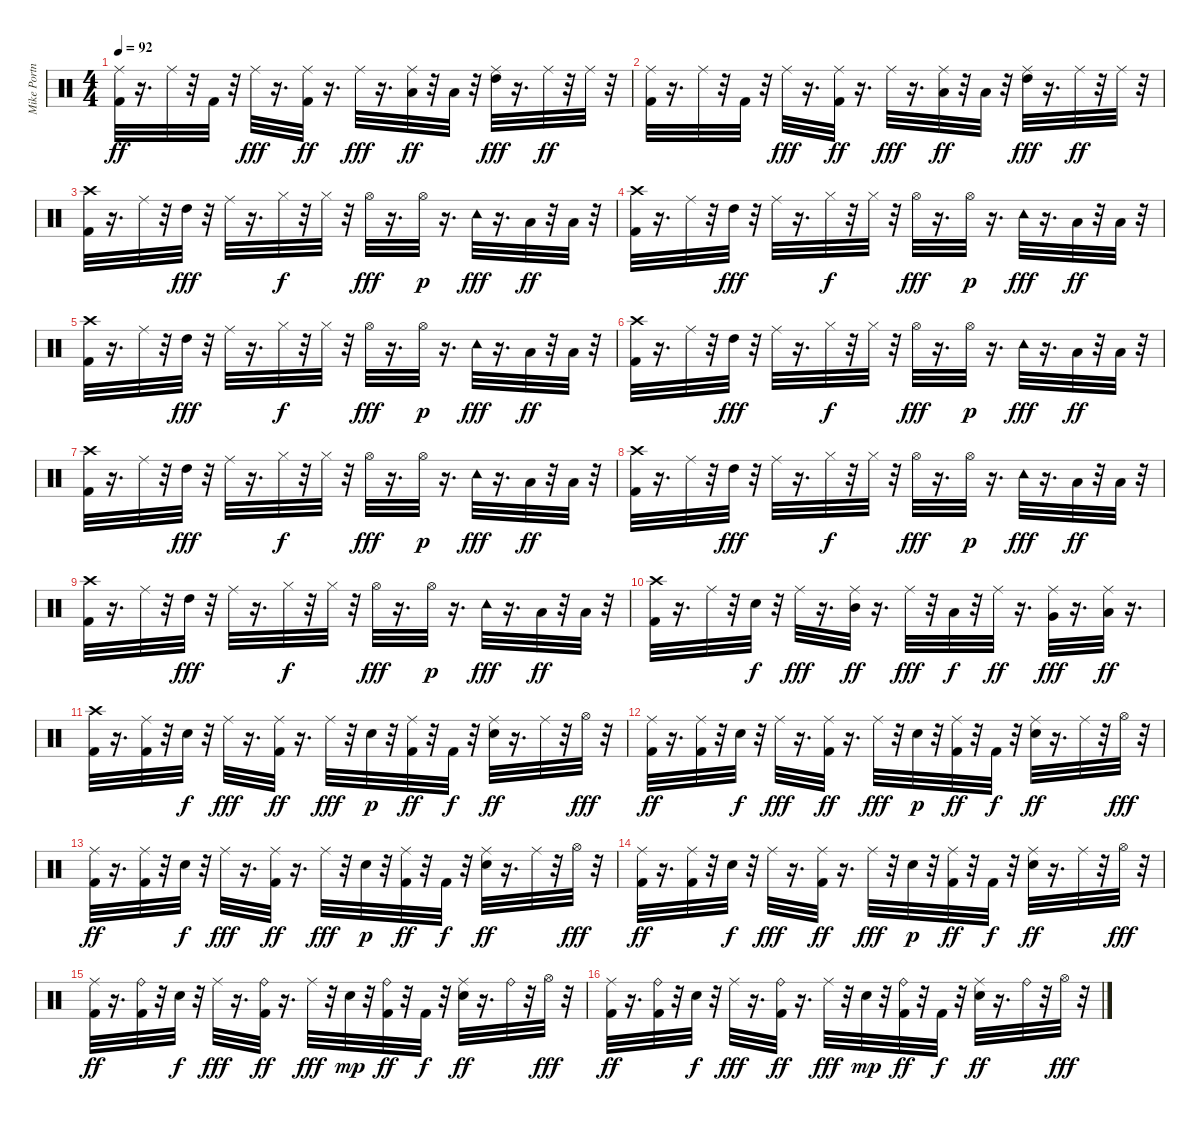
\track ("Mike Portnoy" "Mike Portn") {instrument percussion}
\staff {score}
\articulation defaults
\ts (4 4)
\tempo 92
\clef neutral
\ks c
("Ride (middle)" "Kick (hit) 2").32{dy ff} r.16{d} "Ride (middle)".32 r.32 "Kick (hit) 2".32 r.32 "Ride (middle)".32{dy fff} r.16{d} ("Ride (middle)" "Kick (hit) 2").32{dy ff} r.16{d} "Ride (middle)".32{dy fff} r.16{d} ("Ride (middle)" "Low Tom (hit)").32{dy ff} r.32 "Low Tom (hit)".32 r.32 ("Ride (middle)" "High Tom (hit)").32{dy fff} r.16{d} "Ride (middle)".32{dy ff} r.32 "Ride (middle)".32 r.32 |
("Ride (middle)" "Kick (hit) 2").32 r.16{d} "Ride (middle)".32 r.32 "Kick (hit) 2".32 r.32 "Ride (middle)".32{dy fff} r.16{d} ("Ride (middle)" "Kick (hit) 2").32{dy ff} r.16{d} "Ride (middle)".32{dy fff} r.16{d} ("Ride (middle)" "Low Tom (hit)").32{dy ff} r.32 "Low Tom (hit)".32 r.32 ("Ride (middle)" "High Tom (hit)").32{dy fff} r.16{d} "Ride (middle)".32{dy ff} r.32 "Ride (middle)".32 r.32 |
("Kick (hit) 2" "Crash high (hit)").32 r.16{d} "Ride (middle)".32 r.32 "High Tom (hit)".32{dy fff} r.32 "Ride (middle)".32 r.16{d} "Hi-Hat (closed)".32{dy f} r.32 "Hi-Hat (closed)".32 r.32 "Hi-Hat (open)".32{dy fff} r.16{d} "Hi-Hat (open)".32{dy p} r.16{d} "Tambourine (hit)".32{dy fff} r.16{d} "Low Tom (hit)".32{dy ff} r.32 "Low Tom (hit)".32 r.32 |
("Kick (hit) 2" "Crash high (hit)").32 r.16{d} "Ride (middle)".32 r.32 "High Tom (hit)".32{dy fff} r.32 "Ride (middle)".32 r.16{d} "Hi-Hat (closed)".32{dy f} r.32 "Hi-Hat (closed)".32 r.32 "Hi-Hat (open)".32{dy fff} r.16{d} "Hi-Hat (open)".32{dy p} r.16{d} "Tambourine (hit)".32{dy fff} r.16{d} "Low Tom (hit)".32{dy ff} r.32 "Low Tom (hit)".32 r.32 |
("Kick (hit) 2" "Crash high (hit)").32 r.16{d} "Ride (middle)".32 r.32 "High Tom (hit)".32{dy fff} r.32 "Ride (middle)".32 r.16{d} "Hi-Hat (closed)".32{dy f} r.32 "Hi-Hat (closed)".32 r.32 "Hi-Hat (open)".32{dy fff} r.16{d} "Hi-Hat (open)".32{dy p} r.16{d} "Tambourine (hit)".32{dy fff} r.16{d} "Low Tom (hit)".32{dy ff} r.32 "Low Tom (hit)".32 r.32 |
("Kick (hit) 2" "Crash high (hit)").32 r.16{d} "Ride (middle)".32 r.32 "High Tom (hit)".32{dy fff} r.32 "Ride (middle)".32 r.16{d} "Hi-Hat (closed)".32{dy f} r.32 "Hi-Hat (closed)".32 r.32 "Hi-Hat (open)".32{dy fff} r.16{d} "Hi-Hat (open)".32{dy p} r.16{d} "Tambourine (hit)".32{dy fff} r.16{d} "Low Tom (hit)".32{dy ff} r.32 "Low Tom (hit)".32 r.32 |
("Kick (hit) 2" "Crash high (hit)").32 r.16{d} "Ride (middle)".32 r.32 "High Tom (hit)".32{dy fff} r.32 "Ride (middle)".32 r.16{d} "Hi-Hat (closed)".32{dy f} r.32 "Hi-Hat (closed)".32 r.32 "Hi-Hat (open)".32{dy fff} r.16{d} "Hi-Hat (open)".32{dy p} r.16{d} "Tambourine (hit)".32{dy fff} r.16{d} "Low Tom (hit)".32{dy ff} r.32 "Low Tom (hit)".32 r.32 |
("Kick (hit) 2" "Crash high (hit)").32 r.16{d} "Ride (middle)".32 r.32 "High Tom (hit)".32{dy fff} r.32 "Ride (middle)".32 r.16{d} "Hi-Hat (closed)".32{dy f} r.32 "Hi-Hat (closed)".32 r.32 "Hi-Hat (open)".32{dy fff} r.16{d} "Hi-Hat (open)".32{dy p} r.16{d} "Tambourine (hit)".32{dy fff} r.16{d} "Low Tom (hit)".32{dy ff} r.32 "Low Tom (hit)".32 r.32 |
("Kick (hit) 2" "Crash high (hit)").32 r.16{d} "Ride (middle)".32 r.32 "High Tom (hit)".32{dy fff} r.32 "Ride (middle)".32 r.16{d} "Hi-Hat (closed)".32{dy f} r.32 "Hi-Hat (closed)".32 r.32 "Hi-Hat (open)".32{dy fff} r.16{d} "Hi-Hat (open)".32{dy p} r.16{d} "Tambourine (hit)".32{dy fff} r.16{d} "Low Tom (hit)".32{dy ff} r.32 "Low Tom (hit)".32 r.32 |
("Kick (hit) 2" "Crash high (hit)").32 r.16{d} "Ride (middle)".32 r.32 "Snare (hit) 2".32{dy f} r.32 "Ride (middle)".32{dy fff} r.16{d} ("Ride (middle)" "Mid Tom (hit)").32{dy ff} r.16{d} "Ride (middle)".32{dy fff} r.32 "Low Tom (hit)".32{dy f} r.32 "Ride (middle)".32{dy ff} r.16{d} ("Ride (middle)" "Very Low Tom (hit)").32{dy fff} r.16{d} ("Ride (middle)" "Low Floor Tom (hit)").32{dy ff} r.16{d} |
("Kick (hit) 2" "Crash high (hit)").32 r.16{d} ("Ride (middle)" "Kick (hit) 2").32 r.32 "Snare (hit) 2".32{dy f} r.32 "Ride (middle)".32{dy fff} r.16{d} ("Ride (middle)" "Kick (hit) 2").32{dy ff} r.16{d} "Ride (middle)".32{dy fff} r.32 "Snare (hit) 2".32{dy p} r.32 ("Ride (middle)" "Kick (hit) 2").32{dy ff} r.32 "Kick (hit) 2".32{dy f} r.32 ("Ride (middle)" "Snare (hit) 2").32{dy ff} r.16{d} "Ride (middle)".32 r.32 "Hi-Hat (open)".32{dy fff} r.32 |
("Ride (middle)" "Kick (hit) 2").32{dy ff} r.16{d} ("Ride (middle)" "Kick (hit) 2").32 r.32 "Snare (hit) 2".32{dy f} r.32 "Ride (middle)".32{dy fff} r.16{d} ("Ride (middle)" "Kick (hit) 2").32{dy ff} r.16{d} "Ride (middle)".32{dy fff} r.32 "Snare (hit) 2".32{dy p} r.32 ("Ride (middle)" "Kick (hit) 2").32{dy ff} r.32 "Kick (hit) 2".32{dy f} r.32 ("Ride (middle)" "Snare (hit) 2").32{dy ff} r.16{d} "Ride (middle)".32 r.32 "Hi-Hat (open)".32{dy fff} r.32 |
("Ride (middle)" "Kick (hit) 2").32{dy ff} r.16{d} ("Ride (middle)" "Kick (hit) 2").32 r.32 "Snare (hit) 2".32{dy f} r.32 "Ride (middle)".32{dy fff} r.16{d} ("Ride (middle)" "Kick (hit) 2").32{dy ff} r.16{d} "Ride (middle)".32{dy fff} r.32 "Snare (hit) 2".32{dy p} r.32 ("Ride (middle)" "Kick (hit) 2").32{dy ff} r.32 "Kick (hit) 2".32{dy f} r.32 ("Ride (middle)" "Snare (hit) 2").32{dy ff} r.16{d} "Ride (middle)".32 r.32 "Hi-Hat (open)".32{dy fff} r.32 |
("Ride (middle)" "Kick (hit) 2").32{dy ff} r.16{d} ("Ride (middle)" "Kick (hit) 2").32 r.32 "Snare (hit) 2".32{dy f} r.32 "Ride (middle)".32{dy fff} r.16{d} ("Ride (middle)" "Kick (hit) 2").32{dy ff} r.16{d} "Ride (middle)".32{dy fff} r.32 "Snare (hit) 2".32{dy p} r.32 ("Ride (middle)" "Kick (hit) 2").32{dy ff} r.32 "Kick (hit) 2".32{dy f} r.32 ("Ride (middle)" "Snare (hit) 2").32{dy ff} r.16{d} "Ride (middle)".32 r.32 "Hi-Hat (open)".32{dy fff} r.32 |
("Ride (middle)" "Kick (hit) 2").32{dy ff} r.16{d} ("Kick (hit) 2" "Ride (bell)").32 r.32 "Snare (hit) 2".32{dy f} r.32 "Ride (middle)".32{dy fff} r.16{d} ("Kick (hit) 2" "Ride (bell)").32{dy ff} r.16{d} "Ride (middle)".32{dy fff} r.32 "Snare (hit) 2".32{dy mp} r.32 ("Kick (hit) 2" "Ride (bell)").32{dy ff} r.32 "Kick (hit) 2".32{dy f} r.32 ("Ride (middle)" "Snare (hit) 2").32{dy ff} r.16{d} "Ride (bell)".32 r.32 "Hi-Hat (open)".32{dy fff} r.32 |
("Ride (middle)" "Kick (hit) 2").32{dy ff} r.16{d} ("Kick (hit) 2" "Ride (bell)").32 r.32 "Snare (hit) 2".32{dy f} r.32 "Ride (middle)".32{dy fff} r.16{d} ("Kick (hit) 2" "Ride (bell)").32{dy ff} r.16{d} "Ride (middle)".32{dy fff} r.32 "Snare (hit) 2".32{dy mp} r.32 ("Kick (hit) 2" "Ride (bell)").32{dy ff} r.32 "Kick (hit) 2".32{dy f} r.32 ("Ride (middle)" "Snare (hit) 2").32{dy ff} r.16{d} "Ride (bell)".32 r.32 "Hi-Hat (open)".32{dy fff} r.32
